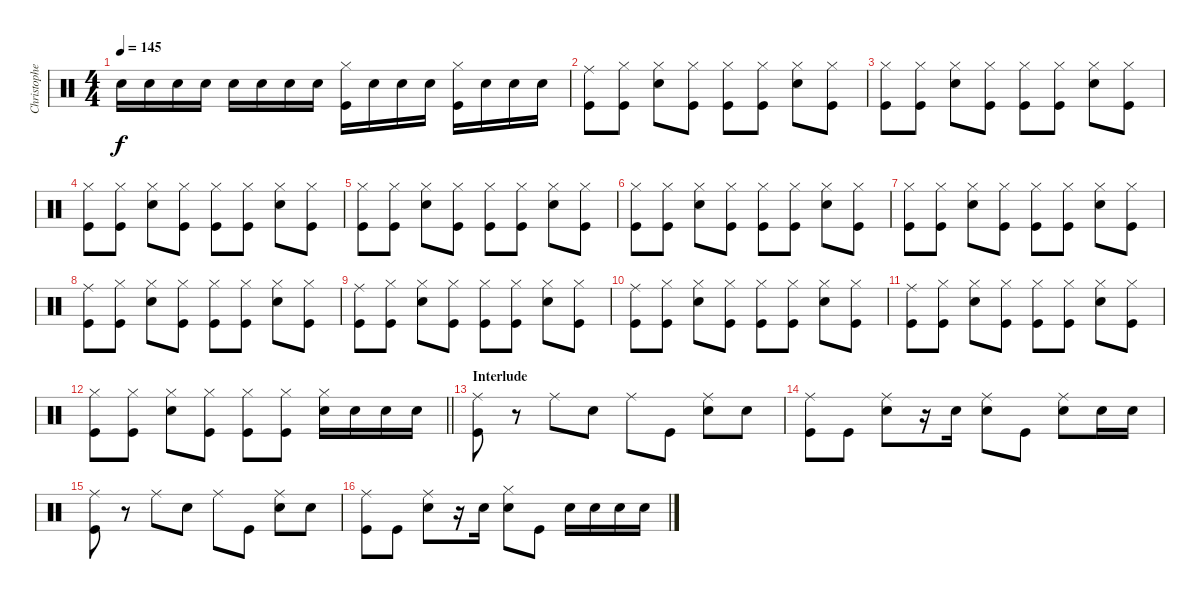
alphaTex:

\track ("Christopher - Drums" "Christophe") {instrument percussion}
\staff {score}
\articulation defaults
\ts (4 4)
\tempo 145
\clef neutral
\ks c "Snare (hit) 2".16{dy f} "Snare (hit) 2".16 "Snare (hit) 2".16 "Snare (hit) 2".16 "Snare (hit) 2".16 "Snare (hit) 2".16 "Snare (hit) 2".16 "Snare (hit) 2".16
("Hi-Hat (closed)" "Kick (hit)").16 "Snare (hit) 2".16 "Snare (hit) 2".16 "Snare (hit) 2".16 ("Hi-Hat (closed)" "Kick (hit)").16 "Snare (hit) 2".16 "Snare (hit) 2".16 "Snare (hit) 2".16 |
("Ride (middle)" "Kick (hit)").8 ("Hi-Hat (closed)" "Kick (hit)").8 ("Hi-Hat (closed)" "Snare (hit) 2").8 ("Hi-Hat (closed)" "Kick (hit)").8 ("Hi-Hat (closed)" "Kick (hit)").8 ("Hi-Hat (closed)" "Kick (hit)").8 ("Hi-Hat (closed)" "Snare (hit) 2").8 ("Hi-Hat (closed)" "Kick (hit)").8 |
("Hi-Hat (closed)" "Kick (hit)").8 ("Hi-Hat (closed)" "Kick (hit)").8 ("Hi-Hat (closed)" "Snare (hit) 2").8 ("Hi-Hat (closed)" "Kick (hit)").8 ("Hi-Hat (closed)" "Kick (hit)").8 ("Hi-Hat (closed)" "Kick (hit)").8 ("Hi-Hat (closed)" "Snare (hit) 2").8 ("Hi-Hat (closed)" "Kick (hit)").8 |
("Hi-Hat (closed)" "Kick (hit)").8 ("Hi-Hat (closed)" "Kick (hit)").8 ("Hi-Hat (closed)" "Snare (hit) 2").8 ("Hi-Hat (closed)" "Kick (hit)").8 ("Hi-Hat (closed)" "Kick (hit)").8 ("Hi-Hat (closed)" "Kick (hit)").8 ("Hi-Hat (closed)" "Snare (hit) 2").8 ("Hi-Hat (closed)" "Kick (hit)").8 |
("Hi-Hat (closed)" "Kick (hit)").8 ("Hi-Hat (closed)" "Kick (hit)").8 ("Hi-Hat (closed)" "Snare (hit) 2").8 ("Hi-Hat (closed)" "Kick (hit)").8 ("Hi-Hat (closed)" "Kick (hit)").8 ("Hi-Hat (closed)" "Kick (hit)").8 ("Hi-Hat (closed)" "Snare (hit) 2").8 ("Hi-Hat (closed)" "Kick (hit)").8 |
("Hi-Hat (closed)" "Kick (hit)").8 ("Hi-Hat (closed)" "Kick (hit)").8 ("Hi-Hat (closed)" "Snare (hit) 2").8 ("Hi-Hat (closed)" "Kick (hit)").8 ("Hi-Hat (closed)" "Kick (hit)").8 ("Hi-Hat (closed)" "Kick (hit)").8 ("Hi-Hat (closed)" "Snare (hit) 2").8 ("Hi-Hat (closed)" "Kick (hit)").8 |
("Hi-Hat (closed)" "Kick (hit)").8 ("Hi-Hat (closed)" "Kick (hit)").8 ("Hi-Hat (closed)" "Snare (hit) 2").8 ("Hi-Hat (closed)" "Kick (hit)").8 ("Hi-Hat (closed)" "Kick (hit)").8 ("Hi-Hat (closed)" "Kick (hit)").8 ("Hi-Hat (closed)" "Snare (hit) 2").8 ("Hi-Hat (closed)" "Kick (hit)").8 |
("Ride (middle)" "Kick (hit)").8 ("Hi-Hat (closed)" "Kick (hit)").8 ("Hi-Hat (closed)" "Snare (hit) 2").8 ("Hi-Hat (closed)" "Kick (hit)").8 ("Hi-Hat (closed)" "Kick (hit)").8 ("Hi-Hat (closed)" "Kick (hit)").8 ("Hi-Hat (closed)" "Snare (hit) 2").8 ("Hi-Hat (closed)" "Kick (hit)").8 |
("Ride (middle)" "Kick (hit)").8 ("Hi-Hat (closed)" "Kick (hit)").8 ("Hi-Hat (closed)" "Snare (hit) 2").8 ("Hi-Hat (closed)" "Kick (hit)").8 ("Hi-Hat (closed)" "Kick (hit)").8 ("Hi-Hat (closed)" "Kick (hit)").8 ("Hi-Hat (closed)" "Snare (hit) 2").8 ("Hi-Hat (closed)" "Kick (hit)").8 |
("Ride (middle)" "Kick (hit)").8 ("Hi-Hat (closed)" "Kick (hit)").8 ("Hi-Hat (closed)" "Snare (hit) 2").8 ("Hi-Hat (closed)" "Kick (hit)").8 ("Hi-Hat (closed)" "Kick (hit)").8 ("Hi-Hat (closed)" "Kick (hit)").8 ("Hi-Hat (closed)" "Snare (hit) 2").8 ("Hi-Hat (closed)" "Kick (hit)").8 |
("Ride (middle)" "Kick (hit)").8 ("Hi-Hat (closed)" "Kick (hit)").8 ("Hi-Hat (closed)" "Snare (hit) 2").8 ("Hi-Hat (closed)" "Kick (hit)").8 ("Hi-Hat (closed)" "Kick (hit)").8 ("Hi-Hat (closed)" "Kick (hit)").8 ("Hi-Hat (closed)" "Snare (hit) 2").8 ("Hi-Hat (closed)" "Kick (hit)").8 |
\barLineRight lightlight
("Hi-Hat (closed)" "Kick (hit)").8 ("Hi-Hat (closed)" "Kick (hit)").8 ("Hi-Hat (closed)" "Snare (hit) 2").8 ("Hi-Hat (closed)" "Kick (hit)").8 ("Hi-Hat (closed)" "Kick (hit)").8 ("Hi-Hat (closed)" "Kick (hit)").8 ("Hi-Hat (closed)" "Snare (hit) 2").16 "Snare (hit) 2".16 "Snare (hit) 2".16 "Snare (hit) 2".16 |
\section ("" "Interlude")
("Ride (middle)" "Kick (hit)").8 r.8 "Ride (middle)".8 "Snare (hit) 2".8 "Ride (middle)".8 "Kick (hit)".8 ("Ride (middle)" "Snare (hit) 2").8 "Snare (hit) 2".8 |
("Ride (middle)" "Kick (hit)").8 "Kick (hit)".8 ("Ride (middle)" "Snare (hit) 2").8 r.16 "Snare (hit) 2".16 ("Ride (middle)" "Snare (hit) 2").8 "Kick (hit)".8 ("Ride (middle)" "Snare (hit) 2").8 "Snare (hit) 2".16 "Snare (hit) 2".16 |
("Ride (middle)" "Kick (hit)").8 r.8 "Ride (middle)".8 "Snare (hit) 2".8 "Ride (middle)".8 "Kick (hit)".8 ("Ride (middle)" "Snare (hit) 2").8 "Snare (hit) 2".8 |
("Ride (middle)" "Kick (hit)").8 "Kick (hit)".8 ("Ride (middle)" "Snare (hit) 2").8 r.16 "Snare (hit) 2".16 ("Hi-Hat (closed)" "Snare (hit) 2").8 "Kick (hit)".8 "Snare (hit) 2".16 "Snare (hit) 2".16 "Snare (hit) 2".16 "Snare (hit) 2".16
